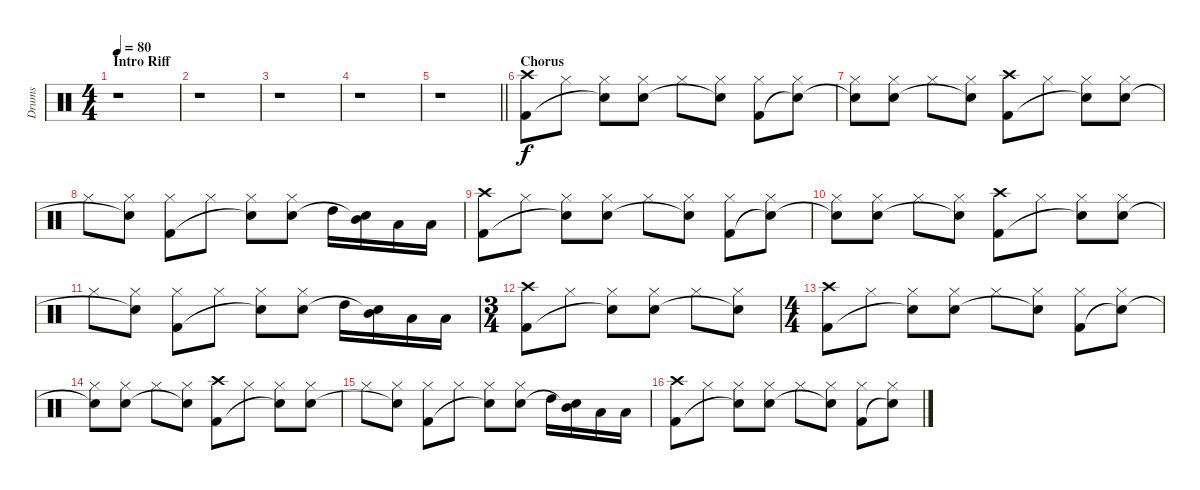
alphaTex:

\track ("Drums" "Drums") {instrument percussion}
\staff {score}
\articulation defaults
\ts (4 4)
\section ("" "Intro Riff")
\tempo 80
\clef neutral
\ks c
r.1{dy f} |
r.1 |
r.1 |
r.1 |
\barLineRight lightlight
r.1 |
\section ("" "Chorus")
("Crash high (hit)" "Kick (hit) 2").8 "Hi-Hat (closed)".8 ("Hi-Hat (closed)" "Snare (hit)"{t}).8 ("Hi-Hat (closed)" "Electric Snare (hit)").8 "Hi-Hat (closed)".8 ("Hi-Hat (closed)" "Snare (hit)"{t}).8 ("Hi-Hat (closed)" "Kick (hit) 2").8 ("Hi-Hat (closed)" "Snare (hit)"{t}).8 |
("Hi-Hat (closed)" "Snare (hit)"{t}).8 ("Hi-Hat (closed)" "Electric Snare (hit)").8 "Hi-Hat (closed)".8 ("Hi-Hat (closed)" "Snare (hit)"{t}).8 ("Crash high (hit)" "Kick (hit) 2").8 "Hi-Hat (closed)".8 ("Hi-Hat (closed)" "Snare (hit)"{t}).8 ("Hi-Hat (closed)" "Electric Snare (hit)").8 |
"Hi-Hat (closed)".8 ("Hi-Hat (closed)" "Snare (hit)"{t}).8 ("Hi-Hat (closed)" "Kick (hit) 2").8 "Hi-Hat (closed)".8 ("Hi-Hat (closed)" "Snare (hit)"{t}).8 ("Hi-Hat (closed)" "Electric Snare (hit)").8 "High Tom (hit)".16 ("Mid Tom (hit)" "Snare (hit)"{t}).16 "Low Tom (hit)".16 "Low Tom (hit)".16 |
("Crash high (hit)" "Kick (hit) 2").8 "Hi-Hat (closed)".8 ("Hi-Hat (closed)" "Snare (hit)"{t}).8 ("Hi-Hat (closed)" "Electric Snare (hit)").8 "Hi-Hat (closed)".8 ("Hi-Hat (closed)" "Snare (hit)"{t}).8 ("Hi-Hat (closed)" "Kick (hit) 2").8 ("Hi-Hat (closed)" "Snare (hit)"{t}).8 |
("Hi-Hat (closed)" "Snare (hit)"{t}).8 ("Hi-Hat (closed)" "Electric Snare (hit)").8 "Hi-Hat (closed)".8 ("Hi-Hat (closed)" "Snare (hit)"{t}).8 ("Crash high (hit)" "Kick (hit) 2").8 "Hi-Hat (closed)".8 ("Hi-Hat (closed)" "Snare (hit)"{t}).8 ("Hi-Hat (closed)" "Electric Snare (hit)").8 |
"Hi-Hat (closed)".8 ("Hi-Hat (closed)" "Snare (hit)"{t}).8 ("Hi-Hat (closed)" "Kick (hit) 2").8 "Hi-Hat (closed)".8 ("Hi-Hat (closed)" "Snare (hit)"{t}).8 ("Hi-Hat (closed)" "Electric Snare (hit)").8 "High Tom (hit)".16 ("Mid Tom (hit)" "Snare (hit)"{t}).16 "Low Tom (hit)".16 "Low Tom (hit)".16 |
\ts (3 4)
("Crash high (hit)" "Kick (hit) 2").8 "Hi-Hat (closed)".8 ("Hi-Hat (closed)" "Snare (hit)"{t}).8 ("Hi-Hat (closed)" "Electric Snare (hit)").8 "Hi-Hat (closed)".8 ("Hi-Hat (closed)" "Snare (hit)"{t}).8 |
\ts (4 4)
("Crash high (hit)" "Kick (hit) 2").8 "Hi-Hat (closed)".8 ("Hi-Hat (closed)" "Snare (hit)"{t}).8 ("Hi-Hat (closed)" "Electric Snare (hit)").8 "Hi-Hat (closed)".8 ("Hi-Hat (closed)" "Snare (hit)"{t}).8 ("Hi-Hat (closed)" "Kick (hit) 2").8 ("Hi-Hat (closed)" "Snare (hit)"{t}).8 |
("Hi-Hat (closed)" "Snare (hit)"{t}).8 ("Hi-Hat (closed)" "Electric Snare (hit)").8 "Hi-Hat (closed)".8 ("Hi-Hat (closed)" "Snare (hit)"{t}).8 ("Crash high (hit)" "Kick (hit) 2").8 "Hi-Hat (closed)".8 ("Hi-Hat (closed)" "Snare (hit)"{t}).8 ("Hi-Hat (closed)" "Electric Snare (hit)").8 |
"Hi-Hat (closed)".8 ("Hi-Hat (closed)" "Snare (hit)"{t}).8 ("Hi-Hat (closed)" "Kick (hit) 2").8 "Hi-Hat (closed)".8 ("Hi-Hat (closed)" "Snare (hit)"{t}).8 ("Hi-Hat (closed)" "Electric Snare (hit)").8 "High Tom (hit)".16 ("Mid Tom (hit)" "Snare (hit)"{t}).16 "Low Tom (hit)".16 "Low Tom (hit)".16 |
("Crash high (hit)" "Kick (hit) 2").8 "Hi-Hat (closed)".8 ("Hi-Hat (closed)" "Snare (hit)"{t}).8 ("Hi-Hat (closed)" "Electric Snare (hit)").8 "Hi-Hat (closed)".8 ("Hi-Hat (closed)" "Snare (hit)"{t}).8 ("Hi-Hat (closed)" "Kick (hit) 2").8 ("Hi-Hat (closed)" "Snare (hit)"{t}).8
